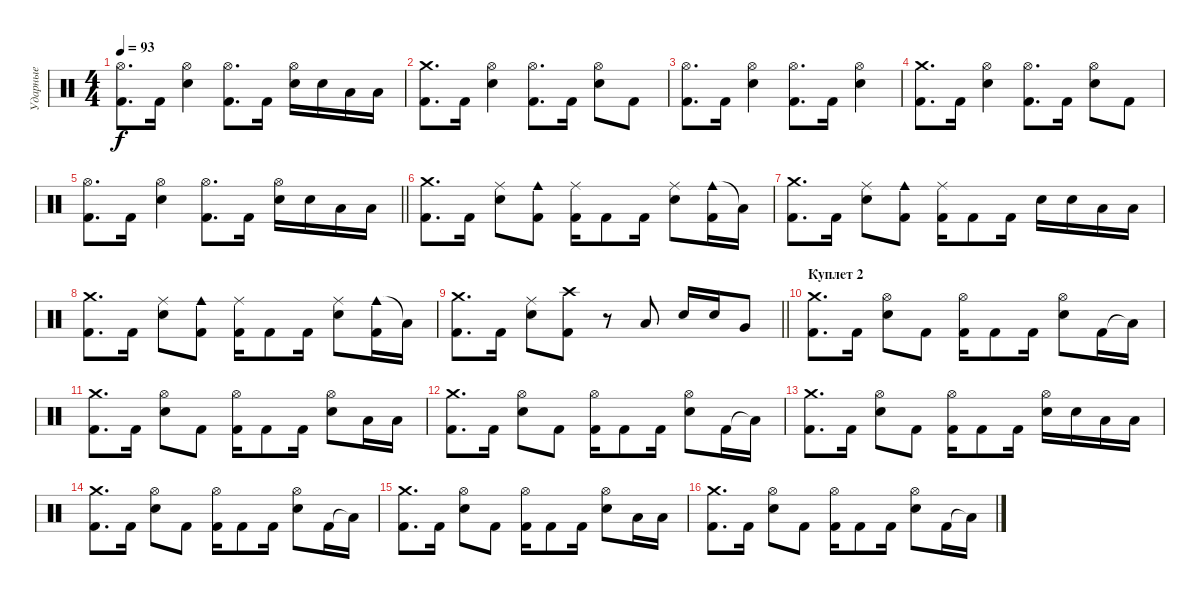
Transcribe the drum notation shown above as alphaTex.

\track ("Ударные" "Ударные") {instrument percussion}
\staff {score}
\articulation defaults
\ts (4 4)
\tempo 93
\clef neutral
\ks c
("Kick (hit) 2" "Hi-Hat (open)").8{d dy f} "Kick (hit) 2".16 ("Hi-Hat (open)" "Snare (hit) 2").4 ("Hi-Hat (open)" "Kick (hit) 2").8{d} "Kick (hit) 2".16 ("Hi-Hat (open)" "Snare (hit) 2").16 "Snare (hit) 2".16 "Low Tom (hit)".16 "Low Tom (hit)".16 |
("Kick (hit) 2" "Crash medium (hit)").8{d} "Kick (hit) 2".16 ("Hi-Hat (open)" "Snare (hit) 2").4 ("Hi-Hat (open)" "Kick (hit) 2").8{d} "Kick (hit) 2".16 ("Hi-Hat (open)" "Snare (hit) 2").8 "Kick (hit) 2".8 |
("Kick (hit) 2" "Hi-Hat (open)").8{d} "Kick (hit) 2".16 ("Hi-Hat (open)" "Snare (hit) 2").4 ("Hi-Hat (open)" "Kick (hit) 2").8{d} "Kick (hit) 2".16 ("Hi-Hat (open)" "Snare (hit) 2").4 |
("Kick (hit) 2" "Crash medium (hit)").8{d} "Kick (hit) 2".16 ("Hi-Hat (open)" "Snare (hit) 2").4 ("Hi-Hat (open)" "Kick (hit) 2").8{d} "Kick (hit) 2".16 ("Hi-Hat (open)" "Snare (hit) 2").8 "Kick (hit) 2".8 |
\barLineRight lightlight
("Kick (hit) 2" "Hi-Hat (open)").8{d} "Kick (hit) 2".16 ("Hi-Hat (open)" "Snare (hit) 2").4 ("Hi-Hat (open)" "Kick (hit) 2").8{d} "Kick (hit) 2".16 ("Hi-Hat (open)" "Snare (hit) 2").16 "Snare (hit) 2".16 "Low Tom (hit)".16 "Low Tom (hit)".16 |
("Crash medium (hit)" "Kick (hit) 2").8{d} "Kick (hit) 2".16 ("Ride (middle)" "Snare (hit) 2").8 ("Cowbell medium (hit)" "Kick (hit) 2").8 ("Ride (middle)" "Kick (hit) 2").16 "Kick (hit) 2".8 "Kick (hit) 2".16 ("Ride (middle)" "Snare (hit) 2").8 ("Cowbell medium (hit)" "Kick (hit) 2").16 "Low Tom (hit)"{t}.16 |
("Crash medium (hit)" "Kick (hit) 2").8{d} "Kick (hit) 2".16 ("Ride (middle)" "Snare (hit) 2").8 ("Cowbell medium (hit)" "Kick (hit) 2").8 ("Ride (middle)" "Kick (hit) 2").16 "Kick (hit) 2".8 "Kick (hit) 2".16 "Snare (hit) 2".16 "Snare (hit) 2".16 "Low Tom (hit)".16 "Low Tom (hit)".16 |
("Crash medium (hit)" "Kick (hit) 2").8{d} "Kick (hit) 2".16 ("Ride (middle)" "Snare (hit) 2").8 ("Cowbell medium (hit)" "Kick (hit) 2").8 ("Ride (middle)" "Kick (hit) 2").16 "Kick (hit) 2".8 "Kick (hit) 2".16 ("Ride (middle)" "Snare (hit) 2").8 ("Cowbell medium (hit)" "Kick (hit) 2").16 "Low Tom (hit)"{t}.16 |
\barLineRight lightlight
("Crash medium (hit)" "Kick (hit) 2").8{d} "Kick (hit) 2".16 ("Ride (middle)" "Snare (hit) 2").8 ("Crash high (hit)" "Kick (hit) 2").8 r.8 "Low Tom (hit)".8 "Snare (hit) 2".16 "Snare (hit) 2".16 "Very Low Tom (hit)".8 |
\section ("" "Куплет 2 ")
("Crash medium (hit)" "Kick (hit) 2").8{d} "Kick (hit) 2".16 ("Hi-Hat (open)" "Snare (hit) 2").8 "Kick (hit) 2".8 ("Hi-Hat (open)" "Kick (hit) 2").16 "Kick (hit) 2".8 "Kick (hit) 2".16 ("Hi-Hat (open)" "Snare (hit) 2").8 "Kick (hit) 2".16 "Low Tom (hit)"{t}.16 |
("Crash medium (hit)" "Kick (hit) 2").8{d} "Kick (hit) 2".16 ("Hi-Hat (open)" "Snare (hit) 2").8 "Kick (hit) 2".8 ("Hi-Hat (open)" "Kick (hit) 2").16 "Kick (hit) 2".8 "Kick (hit) 2".16 ("Hi-Hat (open)" "Snare (hit) 2").8 "Low Tom (hit)".16 "Low Tom (hit)".16 |
("Crash medium (hit)" "Kick (hit) 2").8{d} "Kick (hit) 2".16 ("Hi-Hat (open)" "Snare (hit) 2").8 "Kick (hit) 2".8 ("Hi-Hat (open)" "Kick (hit) 2").16 "Kick (hit) 2".8 "Kick (hit) 2".16 ("Hi-Hat (open)" "Snare (hit) 2").8 "Kick (hit) 2".16 "Low Tom (hit)"{t}.16 |
("Crash medium (hit)" "Kick (hit) 2").8{d} "Kick (hit) 2".16 ("Hi-Hat (open)" "Snare (hit) 2").8 "Kick (hit) 2".8 ("Hi-Hat (open)" "Kick (hit) 2").16 "Kick (hit) 2".8 "Kick (hit) 2".16 ("Hi-Hat (open)" "Snare (hit) 2").16 "Snare (hit) 2".16 "Low Tom (hit)".16 "Low Tom (hit)".16 |
("Crash medium (hit)" "Kick (hit) 2").8{d} "Kick (hit) 2".16 ("Hi-Hat (open)" "Snare (hit) 2").8 "Kick (hit) 2".8 ("Hi-Hat (open)" "Kick (hit) 2").16 "Kick (hit) 2".8 "Kick (hit) 2".16 ("Hi-Hat (open)" "Snare (hit) 2").8 "Kick (hit) 2".16 "Low Tom (hit)"{t}.16 |
("Crash medium (hit)" "Kick (hit) 2").8{d} "Kick (hit) 2".16 ("Hi-Hat (open)" "Snare (hit) 2").8 "Kick (hit) 2".8 ("Hi-Hat (open)" "Kick (hit) 2").16 "Kick (hit) 2".8 "Kick (hit) 2".16 ("Hi-Hat (open)" "Snare (hit) 2").8 "Low Tom (hit)".16 "Low Tom (hit)".16 |
("Crash medium (hit)" "Kick (hit) 2").8{d} "Kick (hit) 2".16 ("Hi-Hat (open)" "Snare (hit) 2").8 "Kick (hit) 2".8 ("Hi-Hat (open)" "Kick (hit) 2").16 "Kick (hit) 2".8 "Kick (hit) 2".16 ("Hi-Hat (open)" "Snare (hit) 2").8 "Kick (hit) 2".16 "Low Tom (hit)"{t}.16
